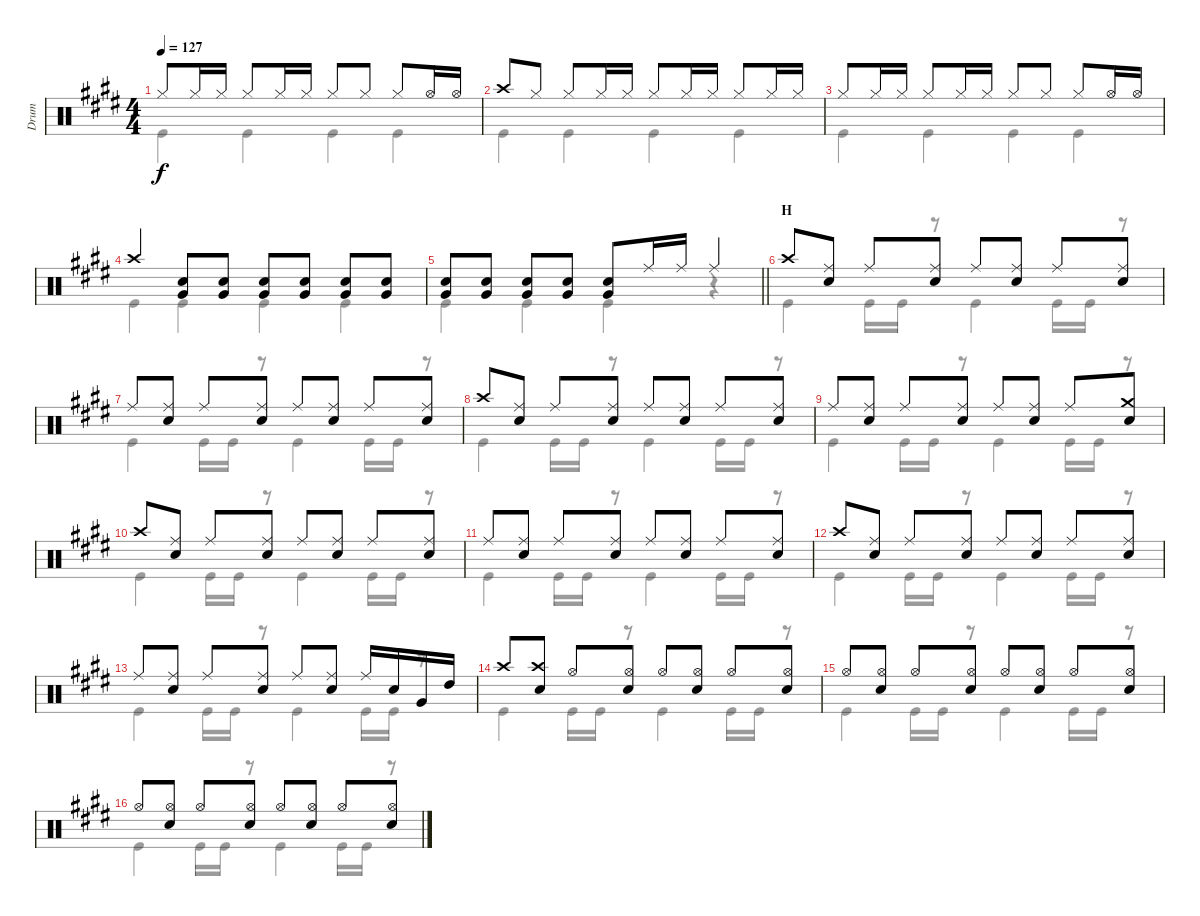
\track ("Drum" "Drum") {instrument percussion}
\staff {score}
\articulation defaults
\voice
\ts (4 4)
\tempo 127
\clef neutral
\ks e "Hi-Hat (closed)".8{dy f} "Hi-Hat (closed)".16 "Hi-Hat (closed)".16 "Hi-Hat (closed)".8 "Hi-Hat (closed)".16 "Hi-Hat (closed)".16 "Hi-Hat (closed)".8 "Hi-Hat (closed)".8 "Hi-Hat (closed)".8 "Hi-Hat (open)".16 "Hi-Hat (open)".16
|
"Crash high (hit)".8 "Hi-Hat (closed)".8 "Hi-Hat (closed)".8 "Hi-Hat (closed)".16 "Hi-Hat (closed)".16 "Hi-Hat (closed)".8 "Hi-Hat (closed)".16 "Hi-Hat (closed)".16 "Hi-Hat (closed)".8 "Hi-Hat (closed)".16 "Hi-Hat (closed)".16 |
"Hi-Hat (closed)".8 "Hi-Hat (closed)".16 "Hi-Hat (closed)".16 "Hi-Hat (closed)".8 "Hi-Hat (closed)".16 "Hi-Hat (closed)".16 "Hi-Hat (closed)".8 "Hi-Hat (closed)".8 "Hi-Hat (closed)".8 "Hi-Hat (open)".16 "Hi-Hat (open)".16 |
"Crash high (hit)".4 ("Snare (hit) 2" "Very Low Tom (hit)").8 ("Snare (hit) 2" "Very Low Tom (hit)").8 ("Snare (hit) 2" "Very Low Tom (hit)").8 ("Very Low Tom (hit)" "Snare (hit) 2").8 ("Snare (hit) 2" "Very Low Tom (hit)").8 ("Snare (hit) 2" "Very Low Tom (hit)").8 |
\barLineRight lightlight
("Snare (hit) 2" "Very Low Tom (hit)").8 ("Snare (hit) 2" "Very Low Tom (hit)").8 ("Snare (hit) 2" "Very Low Tom (hit)").8 ("Snare (hit) 2" "Very Low Tom (hit)").8 ("Snare (hit) 2" "Very Low Tom (hit)").8 "Ride (middle)".16 "Ride (middle)".16 "Ride (middle)".4 |
\section ("" "H")
"Crash high (hit)".8 ("Snare (hit) 2" "Ride (middle)").8 "Ride (middle)".8 ("Ride (middle)" "Snare (hit) 2").8 "Ride (middle)".8 ("Ride (middle)" "Snare (hit) 2").8 "Ride (middle)".8 ("Ride (middle)" "Snare (hit) 2").8 |
"Ride (middle)".8 ("Ride (middle)" "Snare (hit) 2").8 "Ride (middle)".8 ("Ride (middle)" "Snare (hit) 2").8 "Ride (middle)".8 ("Ride (middle)" "Snare (hit) 2").8 "Ride (middle)".8 ("Ride (middle)" "Snare (hit) 2").8 |
"Crash high (hit)".8 ("Snare (hit) 2" "Ride (middle)").8 "Ride (middle)".8 ("Ride (middle)" "Snare (hit) 2").8 "Ride (middle)".8 ("Ride (middle)" "Snare (hit) 2").8 "Ride (middle)".8 ("Ride (middle)" "Snare (hit) 2").8 |
"Ride (middle)".8 ("Ride (middle)" "Snare (hit) 2").8 "Ride (middle)".8 ("Ride (middle)" "Snare (hit) 2").8 "Ride (middle)".8 ("Ride (middle)" "Snare (hit) 2").8 "Ride (middle)".8 ("Crash medium (hit)" "Snare (hit) 2").8 |
"Crash high (hit)".8 ("Snare (hit) 2" "Ride (middle)").8 "Ride (middle)".8 ("Ride (middle)" "Snare (hit) 2").8 "Ride (middle)".8 ("Ride (middle)" "Snare (hit) 2").8 "Ride (middle)".8 ("Ride (middle)" "Snare (hit) 2").8 |
"Ride (middle)".8 ("Ride (middle)" "Snare (hit) 2").8 "Ride (middle)".8 ("Ride (middle)" "Snare (hit) 2").8 "Ride (middle)".8 ("Ride (middle)" "Snare (hit) 2").8 "Ride (middle)".8 ("Ride (middle)" "Snare (hit) 2").8 |
"Crash high (hit)".8 ("Snare (hit) 2" "Ride (middle)").8 "Ride (middle)".8 ("Ride (middle)" "Snare (hit) 2").8 "Ride (middle)".8 ("Ride (middle)" "Snare (hit) 2").8 "Ride (middle)".8 ("Ride (middle)" "Snare (hit) 2").8 |
"Ride (middle)".8 ("Ride (middle)" "Snare (hit) 2").8 "Ride (middle)".8 ("Ride (middle)" "Snare (hit) 2").8 "Ride (middle)".8 ("Ride (middle)" "Snare (hit) 2").8 "Ride (middle)".16 "Snare (hit) 2".16 "Very Low Tom (hit)".16 "High Tom (hit)".16 |
"Crash high (hit)".8 ("Snare (hit) 2" "Crash high (hit)").8 "Hi-Hat (open)".8 ("Hi-Hat (open)" "Snare (hit) 2").8 "Hi-Hat (open)".8 ("Hi-Hat (open)" "Snare (hit) 2").8 "Hi-Hat (open)".8 ("Hi-Hat (open)" "Snare (hit) 2").8 |
"Hi-Hat (open)".8 ("Hi-Hat (open)" "Snare (hit) 2").8 "Hi-Hat (open)".8 ("Hi-Hat (open)" "Snare (hit) 2").8 "Hi-Hat (open)".8 ("Hi-Hat (open)" "Snare (hit) 2").8 "Hi-Hat (open)".8 ("Hi-Hat (open)" "Snare (hit) 2").8 |
"Hi-Hat (open)".8 ("Hi-Hat (open)" "Snare (hit) 2").8 "Hi-Hat (open)".8 ("Hi-Hat (open)" "Snare (hit) 2").8 "Hi-Hat (open)".8 ("Hi-Hat (open)" "Snare (hit) 2").8 "Hi-Hat (open)".8 ("Hi-Hat (open)" "Snare (hit) 2").8
\voice
\clef neutral
\ottava regular
\simile none
\ks e "Kick (hit)".4{dy f} "Kick (hit)".4 "Kick (hit)".4 "Kick (hit)".4
|
"Kick (hit)".4 "Kick (hit)".4 "Kick (hit)".4 "Kick (hit)".4 |
"Kick (hit)".4 "Kick (hit)".4 "Kick (hit)".4 "Kick (hit)".4 |
"Kick (hit)".4 "Kick (hit)".4 "Kick (hit)".4 "Kick (hit)".4 |
\barLineRight lightlight "Kick (hit)".4 "Kick (hit)".4 "Kick (hit)".4
r.4 |
"Kick (hit)".4 "Kick (hit)".16 "Kick (hit)".16 r.8 "Kick (hit)".4 "Kick (hit)".16 "Kick (hit)".16 r.8 |
"Kick (hit)".4 "Kick (hit)".16 "Kick (hit)".16 r.8 "Kick (hit)".4 "Kick (hit)".16 "Kick (hit)".16 r.8 |
"Kick (hit)".4 "Kick (hit)".16 "Kick (hit)".16 r.8 "Kick (hit)".4 "Kick (hit)".16 "Kick (hit)".16 r.8 |
"Kick (hit)".4 "Kick (hit)".16 "Kick (hit)".16 r.8 "Kick (hit)".4 "Kick (hit)".16 "Kick (hit)".16 r.8 |
"Kick (hit)".4 "Kick (hit)".16 "Kick (hit)".16 r.8 "Kick (hit)".4 "Kick (hit)".16 "Kick (hit)".16 r.8 |
"Kick (hit)".4 "Kick (hit)".16 "Kick (hit)".16 r.8 "Kick (hit)".4 "Kick (hit)".16 "Kick (hit)".16 r.8 |
"Kick (hit)".4 "Kick (hit)".16 "Kick (hit)".16 r.8 "Kick (hit)".4 "Kick (hit)".16 "Kick (hit)".16 r.8 |
"Kick (hit)".4 "Kick (hit)".16 "Kick (hit)".16 r.8 "Kick (hit)".4 "Kick (hit)".16 "Kick (hit)".16 r.8 |
"Kick (hit)".4 "Kick (hit)".16 "Kick (hit)".16 r.8 "Kick (hit)".4 "Kick (hit)".16 "Kick (hit)".16 r.8 |
"Kick (hit)".4 "Kick (hit)".16 "Kick (hit)".16 r.8 "Kick (hit)".4 "Kick (hit)".16 "Kick (hit)".16 r.8 |
"Kick (hit)".4 "Kick (hit)".16 "Kick (hit)".16 r.8 "Kick (hit)".4 "Kick (hit)".16 "Kick (hit)".16 r.8
